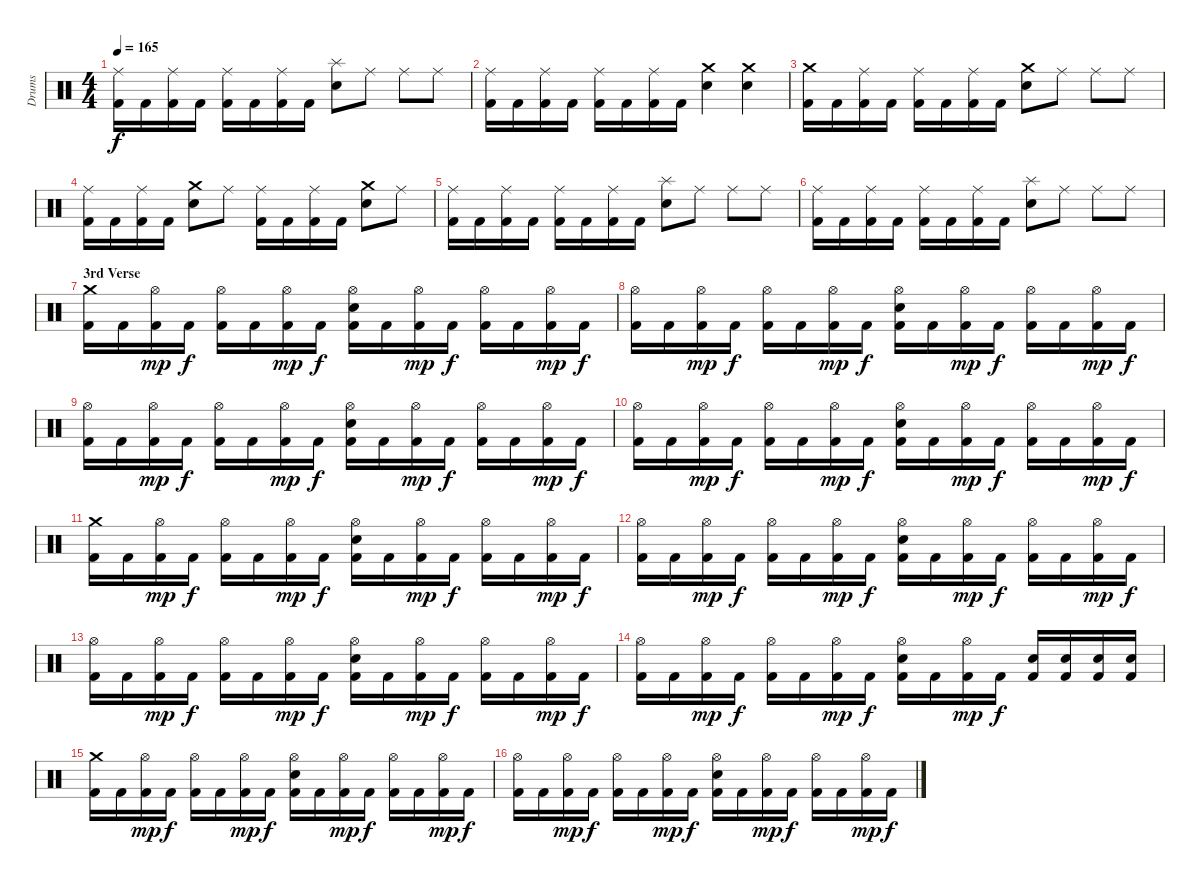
\track ("Drums" "Drums") {instrument percussion}
\staff {score}
\articulation defaults
\ts (4 4)
\tempo 165
\clef neutral
\ks c
("Kick (hit) 2" "Ride (middle)").16{dy f} "Kick (hit) 2".16 ("Kick (hit) 2" "Ride (middle)").16 "Kick (hit) 2".16 ("Kick (hit) 2" "Ride (middle)").16 "Kick (hit) 2".16 ("Kick (hit) 2" "Ride (middle)").16 "Kick (hit) 2".16 ("Electric Snare (hit)" "Splash (hit)").8 "Ride (middle)".8 "Ride (middle)".8 "Ride (middle)".8 |
("Kick (hit) 2" "Ride (middle)").16 "Kick (hit) 2".16 ("Kick (hit) 2" "Ride (middle)").16 "Kick (hit) 2".16 ("Kick (hit) 2" "Ride (middle)").16 "Kick (hit) 2".16 ("Kick (hit) 2" "Ride (middle)").16 "Kick (hit) 2".16 ("Electric Snare (hit)" "Crash medium (hit)").4 ("Electric Snare (hit)" "Crash medium (hit)").4 |
("Kick (hit) 2" "Crash medium (hit)").16 "Kick (hit) 2".16 ("Kick (hit) 2" "Ride (middle)").16 "Kick (hit) 2".16 ("Kick (hit) 2" "Ride (middle)").16 "Kick (hit) 2".16 ("Kick (hit) 2" "Ride (middle)").16 "Kick (hit) 2".16 ("Electric Snare (hit)" "Crash medium (hit)").8 "Ride (middle)".8 "Ride (middle)".8 "Ride (middle)".8 |
("Kick (hit) 2" "Ride (middle)").16 "Kick (hit) 2".16 ("Kick (hit) 2" "Ride (middle)").16 "Kick (hit) 2".16 ("Electric Snare (hit)" "Crash medium (hit)").8 "Ride (middle)".8 ("Kick (hit) 2" "Ride (middle)").16 "Kick (hit) 2".16 ("Kick (hit) 2" "Ride (middle)").16 "Kick (hit) 2".16 ("Electric Snare (hit)" "Crash medium (hit)").8 "Ride (middle)".8 |
("Kick (hit) 2" "Ride (middle)").16 "Kick (hit) 2".16 ("Kick (hit) 2" "Ride (middle)").16 "Kick (hit) 2".16 ("Kick (hit) 2" "Ride (middle)").16 "Kick (hit) 2".16 ("Kick (hit) 2" "Ride (middle)").16 "Kick (hit) 2".16 ("Electric Snare (hit)" "Splash (hit)").8 "Ride (middle)".8 "Ride (middle)".8 "Ride (middle)".8 |
("Kick (hit) 2" "Ride (middle)").16 "Kick (hit) 2".16 ("Kick (hit) 2" "Ride (middle)").16 "Kick (hit) 2".16 ("Kick (hit) 2" "Ride (middle)").16 "Kick (hit) 2".16 ("Kick (hit) 2" "Ride (middle)").16 "Kick (hit) 2".16 ("Electric Snare (hit)" "Splash (hit)").8 "Ride (middle)".8 "Ride (middle)".8 "Ride (middle)".8 |
\section ("" "3rd Verse")
("Kick (hit) 2" "Crash medium (hit)").16 "Kick (hit) 2".16 ("Kick (hit) 2" "Hi-Hat (open)").16{dy mp} "Kick (hit) 2".16{dy f} ("Kick (hit) 2" "Hi-Hat (open)").16 "Kick (hit) 2".16 ("Kick (hit) 2" "Hi-Hat (open)").16{dy mp} "Kick (hit) 2".16{dy f} ("Kick (hit) 2" "Electric Snare (hit)" "Hi-Hat (open)").16 "Kick (hit) 2".16 ("Kick (hit) 2" "Hi-Hat (open)").16{dy mp} "Kick (hit) 2".16{dy f} ("Kick (hit) 2" "Hi-Hat (open)").16 "Kick (hit) 2".16 ("Kick (hit) 2" "Hi-Hat (open)").16{dy mp} "Kick (hit) 2".16{dy f} |
("Kick (hit) 2" "Hi-Hat (open)").16 "Kick (hit) 2".16 ("Kick (hit) 2" "Hi-Hat (open)").16{dy mp} "Kick (hit) 2".16{dy f} ("Kick (hit) 2" "Hi-Hat (open)").16 "Kick (hit) 2".16 ("Kick (hit) 2" "Hi-Hat (open)").16{dy mp} "Kick (hit) 2".16{dy f} ("Kick (hit) 2" "Electric Snare (hit)" "Hi-Hat (open)").16 "Kick (hit) 2".16 ("Kick (hit) 2" "Hi-Hat (open)").16{dy mp} "Kick (hit) 2".16{dy f} ("Kick (hit) 2" "Hi-Hat (open)").16 "Kick (hit) 2".16 ("Kick (hit) 2" "Hi-Hat (open)").16{dy mp} "Kick (hit) 2".16{dy f} |
("Kick (hit) 2" "Hi-Hat (open)").16 "Kick (hit) 2".16 ("Kick (hit) 2" "Hi-Hat (open)").16{dy mp} "Kick (hit) 2".16{dy f} ("Kick (hit) 2" "Hi-Hat (open)").16 "Kick (hit) 2".16 ("Kick (hit) 2" "Hi-Hat (open)").16{dy mp} "Kick (hit) 2".16{dy f} ("Kick (hit) 2" "Electric Snare (hit)" "Hi-Hat (open)").16 "Kick (hit) 2".16 ("Kick (hit) 2" "Hi-Hat (open)").16{dy mp} "Kick (hit) 2".16{dy f} ("Kick (hit) 2" "Hi-Hat (open)").16 "Kick (hit) 2".16 ("Kick (hit) 2" "Hi-Hat (open)").16{dy mp} "Kick (hit) 2".16{dy f} |
("Kick (hit) 2" "Hi-Hat (open)").16 "Kick (hit) 2".16 ("Kick (hit) 2" "Hi-Hat (open)").16{dy mp} "Kick (hit) 2".16{dy f} ("Kick (hit) 2" "Hi-Hat (open)").16 "Kick (hit) 2".16 ("Kick (hit) 2" "Hi-Hat (open)").16{dy mp} "Kick (hit) 2".16{dy f} ("Kick (hit) 2" "Electric Snare (hit)" "Hi-Hat (open)").16 "Kick (hit) 2".16 ("Kick (hit) 2" "Hi-Hat (open)").16{dy mp} "Kick (hit) 2".16{dy f} ("Kick (hit) 2" "Hi-Hat (open)").16 "Kick (hit) 2".16 ("Kick (hit) 2" "Hi-Hat (open)").16{dy mp} "Kick (hit) 2".16{dy f} |
("Kick (hit) 2" "Crash medium (hit)").16 "Kick (hit) 2".16 ("Kick (hit) 2" "Hi-Hat (open)").16{dy mp} "Kick (hit) 2".16{dy f} ("Kick (hit) 2" "Hi-Hat (open)").16 "Kick (hit) 2".16 ("Kick (hit) 2" "Hi-Hat (open)").16{dy mp} "Kick (hit) 2".16{dy f} ("Kick (hit) 2" "Electric Snare (hit)" "Hi-Hat (open)").16 "Kick (hit) 2".16 ("Kick (hit) 2" "Hi-Hat (open)").16{dy mp} "Kick (hit) 2".16{dy f} ("Kick (hit) 2" "Hi-Hat (open)").16 "Kick (hit) 2".16 ("Kick (hit) 2" "Hi-Hat (open)").16{dy mp} "Kick (hit) 2".16{dy f} |
("Kick (hit) 2" "Hi-Hat (open)").16 "Kick (hit) 2".16 ("Kick (hit) 2" "Hi-Hat (open)").16{dy mp} "Kick (hit) 2".16{dy f} ("Kick (hit) 2" "Hi-Hat (open)").16 "Kick (hit) 2".16 ("Kick (hit) 2" "Hi-Hat (open)").16{dy mp} "Kick (hit) 2".16{dy f} ("Kick (hit) 2" "Electric Snare (hit)" "Hi-Hat (open)").16 "Kick (hit) 2".16 ("Kick (hit) 2" "Hi-Hat (open)").16{dy mp} "Kick (hit) 2".16{dy f} ("Kick (hit) 2" "Hi-Hat (open)").16 "Kick (hit) 2".16 ("Kick (hit) 2" "Hi-Hat (open)").16{dy mp} "Kick (hit) 2".16{dy f} |
("Kick (hit) 2" "Hi-Hat (open)").16 "Kick (hit) 2".16 ("Kick (hit) 2" "Hi-Hat (open)").16{dy mp} "Kick (hit) 2".16{dy f} ("Kick (hit) 2" "Hi-Hat (open)").16 "Kick (hit) 2".16 ("Kick (hit) 2" "Hi-Hat (open)").16{dy mp} "Kick (hit) 2".16{dy f} ("Kick (hit) 2" "Electric Snare (hit)" "Hi-Hat (open)").16 "Kick (hit) 2".16 ("Kick (hit) 2" "Hi-Hat (open)").16{dy mp} "Kick (hit) 2".16{dy f} ("Kick (hit) 2" "Hi-Hat (open)").16 "Kick (hit) 2".16 ("Kick (hit) 2" "Hi-Hat (open)").16{dy mp} "Kick (hit) 2".16{dy f} |
("Kick (hit) 2" "Hi-Hat (open)").16 "Kick (hit) 2".16 ("Kick (hit) 2" "Hi-Hat (open)").16{dy mp} "Kick (hit) 2".16{dy f} ("Kick (hit) 2" "Hi-Hat (open)").16 "Kick (hit) 2".16 ("Kick (hit) 2" "Hi-Hat (open)").16{dy mp} "Kick (hit) 2".16{dy f} ("Kick (hit) 2" "Electric Snare (hit)" "Hi-Hat (open)").16 "Kick (hit) 2".16 ("Kick (hit) 2" "Hi-Hat (open)").16{dy mp} "Kick (hit) 2".16{dy f} ("Kick (hit) 2" "Electric Snare (hit)").16 ("Kick (hit) 2" "Electric Snare (hit)").16 ("Kick (hit) 2" "Electric Snare (hit)").16 ("Kick (hit) 2" "Electric Snare (hit)").16 |
("Kick (hit) 2" "Crash medium (hit)").16 "Kick (hit) 2".16 ("Kick (hit) 2" "Hi-Hat (open)").16{dy mp} "Kick (hit) 2".16{dy f} ("Kick (hit) 2" "Hi-Hat (open)").16 "Kick (hit) 2".16 ("Kick (hit) 2" "Hi-Hat (open)").16{dy mp} "Kick (hit) 2".16{dy f} ("Kick (hit) 2" "Electric Snare (hit)" "Hi-Hat (open)").16 "Kick (hit) 2".16 ("Kick (hit) 2" "Hi-Hat (open)").16{dy mp} "Kick (hit) 2".16{dy f} ("Kick (hit) 2" "Hi-Hat (open)").16 "Kick (hit) 2".16 ("Kick (hit) 2" "Hi-Hat (open)").16{dy mp} "Kick (hit) 2".16{dy f} |
("Kick (hit) 2" "Hi-Hat (open)").16 "Kick (hit) 2".16 ("Kick (hit) 2" "Hi-Hat (open)").16{dy mp} "Kick (hit) 2".16{dy f} ("Kick (hit) 2" "Hi-Hat (open)").16 "Kick (hit) 2".16 ("Kick (hit) 2" "Hi-Hat (open)").16{dy mp} "Kick (hit) 2".16{dy f} ("Kick (hit) 2" "Electric Snare (hit)" "Hi-Hat (open)").16 "Kick (hit) 2".16 ("Kick (hit) 2" "Hi-Hat (open)").16{dy mp} "Kick (hit) 2".16{dy f} ("Kick (hit) 2" "Hi-Hat (open)").16 "Kick (hit) 2".16 ("Kick (hit) 2" "Hi-Hat (open)").16{dy mp} "Kick (hit) 2".16{dy f}
